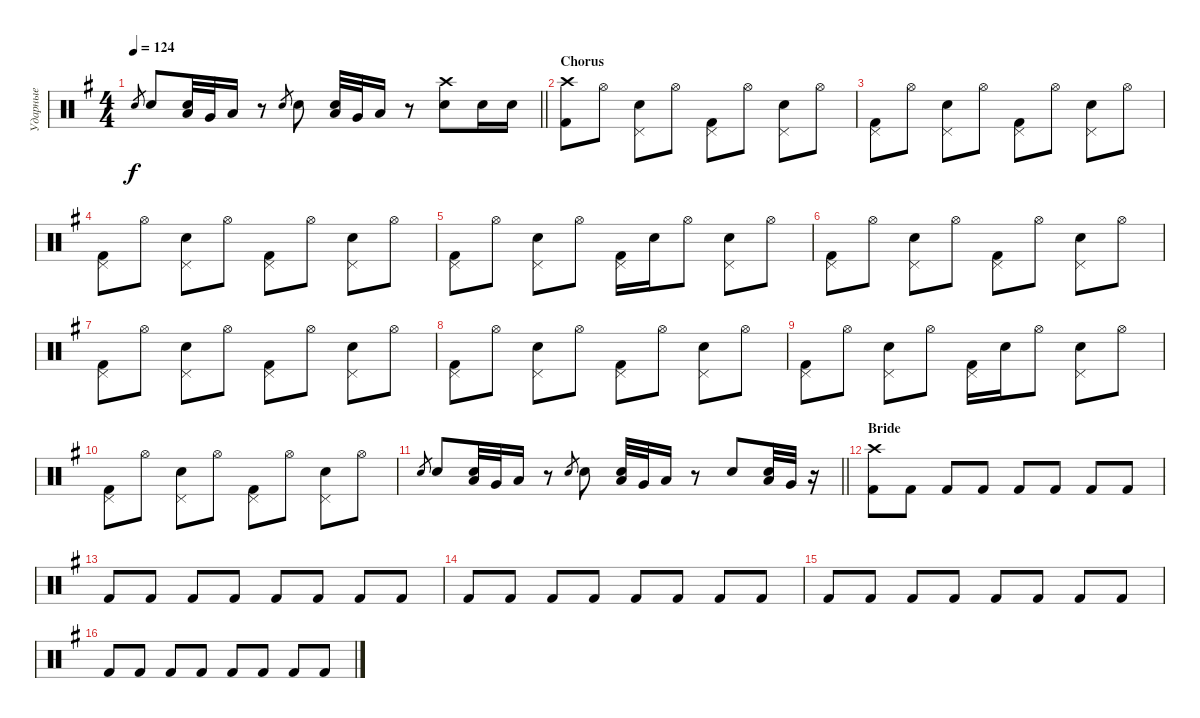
\track ("Ударные" "Ударные") {instrument percussion}
\staff {score}
\articulation defaults
\ts (4 4)
\tempo 124
\clef neutral
\barLineRight lightlight
\ks g "Electric Snare (hit)".8{gr dy f} "Electric Snare (hit)".8{volume 13}
("Low Tom (hit)" "Electric Snare (hit)").32 "Very Low Tom (hit)".32 "Low Floor Tom (hit)".16 r.8 "Electric Snare (hit)".8{gr} "Electric Snare (hit)".8 ("Low Tom (hit)" "Electric Snare (hit)").32 "Very Low Tom (hit)".32 "Low Floor Tom (hit)".16 r.8 ("Crash high (hit)" "Electric Snare (hit)").8 "Electric Snare (hit)".16 "Electric Snare (hit)".16 |
\section ("" "Chorus")
("Crash high (hit)" "Kick (hit) 2").8 "Hi-Hat (open)".8 ("Pedal Hi-Hat (hit)" "Electric Snare (hit)").8 "Hi-Hat (open)".8 ("Pedal Hi-Hat (hit)" "Kick (hit) 2").8 "Hi-Hat (open)".8 ("Pedal Hi-Hat (hit)" "Electric Snare (hit)").8 "Hi-Hat (open)".8 |
("Pedal Hi-Hat (hit)" "Kick (hit) 2").8 "Hi-Hat (open)".8 ("Pedal Hi-Hat (hit)" "Electric Snare (hit)").8 "Hi-Hat (open)".8 ("Pedal Hi-Hat (hit)" "Kick (hit) 2").8 "Hi-Hat (open)".8 ("Pedal Hi-Hat (hit)" "Electric Snare (hit)").8 "Hi-Hat (open)".8 |
("Pedal Hi-Hat (hit)" "Kick (hit) 2").8 "Hi-Hat (open)".8 ("Pedal Hi-Hat (hit)" "Electric Snare (hit)").8 "Hi-Hat (open)".8 ("Pedal Hi-Hat (hit)" "Kick (hit) 2").8 "Hi-Hat (open)".8 ("Pedal Hi-Hat (hit)" "Electric Snare (hit)").8 "Hi-Hat (open)".8 |
("Pedal Hi-Hat (hit)" "Kick (hit) 2").8 "Hi-Hat (open)".8 ("Pedal Hi-Hat (hit)" "Electric Snare (hit)").8 "Hi-Hat (open)".8 ("Pedal Hi-Hat (hit)" "Kick (hit) 2").16 "Electric Snare (hit)".16 "Hi-Hat (open)".8 ("Pedal Hi-Hat (hit)" "Electric Snare (hit)").8 "Hi-Hat (open)".8 |
("Pedal Hi-Hat (hit)" "Kick (hit) 2").8 "Hi-Hat (open)".8 ("Pedal Hi-Hat (hit)" "Electric Snare (hit)").8 "Hi-Hat (open)".8 ("Pedal Hi-Hat (hit)" "Kick (hit) 2").8 "Hi-Hat (open)".8 ("Pedal Hi-Hat (hit)" "Electric Snare (hit)").8 "Hi-Hat (open)".8 |
("Pedal Hi-Hat (hit)" "Kick (hit) 2").8 "Hi-Hat (open)".8 ("Pedal Hi-Hat (hit)" "Electric Snare (hit)").8 "Hi-Hat (open)".8 ("Pedal Hi-Hat (hit)" "Kick (hit) 2").8 "Hi-Hat (open)".8 ("Pedal Hi-Hat (hit)" "Electric Snare (hit)").8 "Hi-Hat (open)".8 |
("Pedal Hi-Hat (hit)" "Kick (hit) 2").8 "Hi-Hat (open)".8 ("Pedal Hi-Hat (hit)" "Electric Snare (hit)").8 "Hi-Hat (open)".8 ("Pedal Hi-Hat (hit)" "Kick (hit) 2").8 "Hi-Hat (open)".8 ("Pedal Hi-Hat (hit)" "Electric Snare (hit)").8 "Hi-Hat (open)".8 |
("Pedal Hi-Hat (hit)" "Kick (hit) 2").8 "Hi-Hat (open)".8 ("Pedal Hi-Hat (hit)" "Electric Snare (hit)").8 "Hi-Hat (open)".8 ("Pedal Hi-Hat (hit)" "Kick (hit) 2").16 "Electric Snare (hit)".16 "Hi-Hat (open)".8 ("Pedal Hi-Hat (hit)" "Electric Snare (hit)").8 "Hi-Hat (open)".8 |
("Pedal Hi-Hat (hit)" "Kick (hit) 2").8 "Hi-Hat (open)".8 ("Pedal Hi-Hat (hit)" "Electric Snare (hit)").8 "Hi-Hat (open)".8 ("Pedal Hi-Hat (hit)" "Kick (hit) 2").8 "Hi-Hat (open)".8 ("Pedal Hi-Hat (hit)" "Electric Snare (hit)").8 "Hi-Hat (open)".8 |
\barLineRight lightlight "Electric Snare (hit)".8{gr} "Electric Snare (hit)".8{volume 13}
("Low Tom (hit)" "Electric Snare (hit)").32 "Very Low Tom (hit)".32 "Low Floor Tom (hit)".16 r.8 "Electric Snare (hit)".8{gr} "Electric Snare (hit)".8 ("Low Tom (hit)" "Electric Snare (hit)").32 "Very Low Tom (hit)".32 "Low Floor Tom (hit)".16 r.8 "Electric Snare (hit)".8 ("Low Tom (hit)" "Electric Snare (hit)").32 "Very Low Tom (hit)".32 r.16 |
\section ("" "Bride")
("Crash high (hit)" "Kick (hit) 2").8 "Kick (hit) 2".8 "Kick (hit) 2".8 "Kick (hit) 2".8 "Kick (hit) 2".8 "Kick (hit) 2".8 "Kick (hit) 2".8 "Kick (hit) 2".8 |
"Kick (hit) 2".8 "Kick (hit) 2".8 "Kick (hit) 2".8 "Kick (hit) 2".8 "Kick (hit) 2".8 "Kick (hit) 2".8 "Kick (hit) 2".8 "Kick (hit) 2".8 |
"Kick (hit) 2".8 "Kick (hit) 2".8 "Kick (hit) 2".8 "Kick (hit) 2".8 "Kick (hit) 2".8 "Kick (hit) 2".8 "Kick (hit) 2".8 "Kick (hit) 2".8 |
"Kick (hit) 2".8 "Kick (hit) 2".8 "Kick (hit) 2".8 "Kick (hit) 2".8 "Kick (hit) 2".8 "Kick (hit) 2".8 "Kick (hit) 2".8 "Kick (hit) 2".8 |
"Kick (hit) 2".8 "Kick (hit) 2".8 "Kick (hit) 2".8 "Kick (hit) 2".8 "Kick (hit) 2".8 "Kick (hit) 2".8 "Kick (hit) 2".8 "Kick (hit) 2".8
